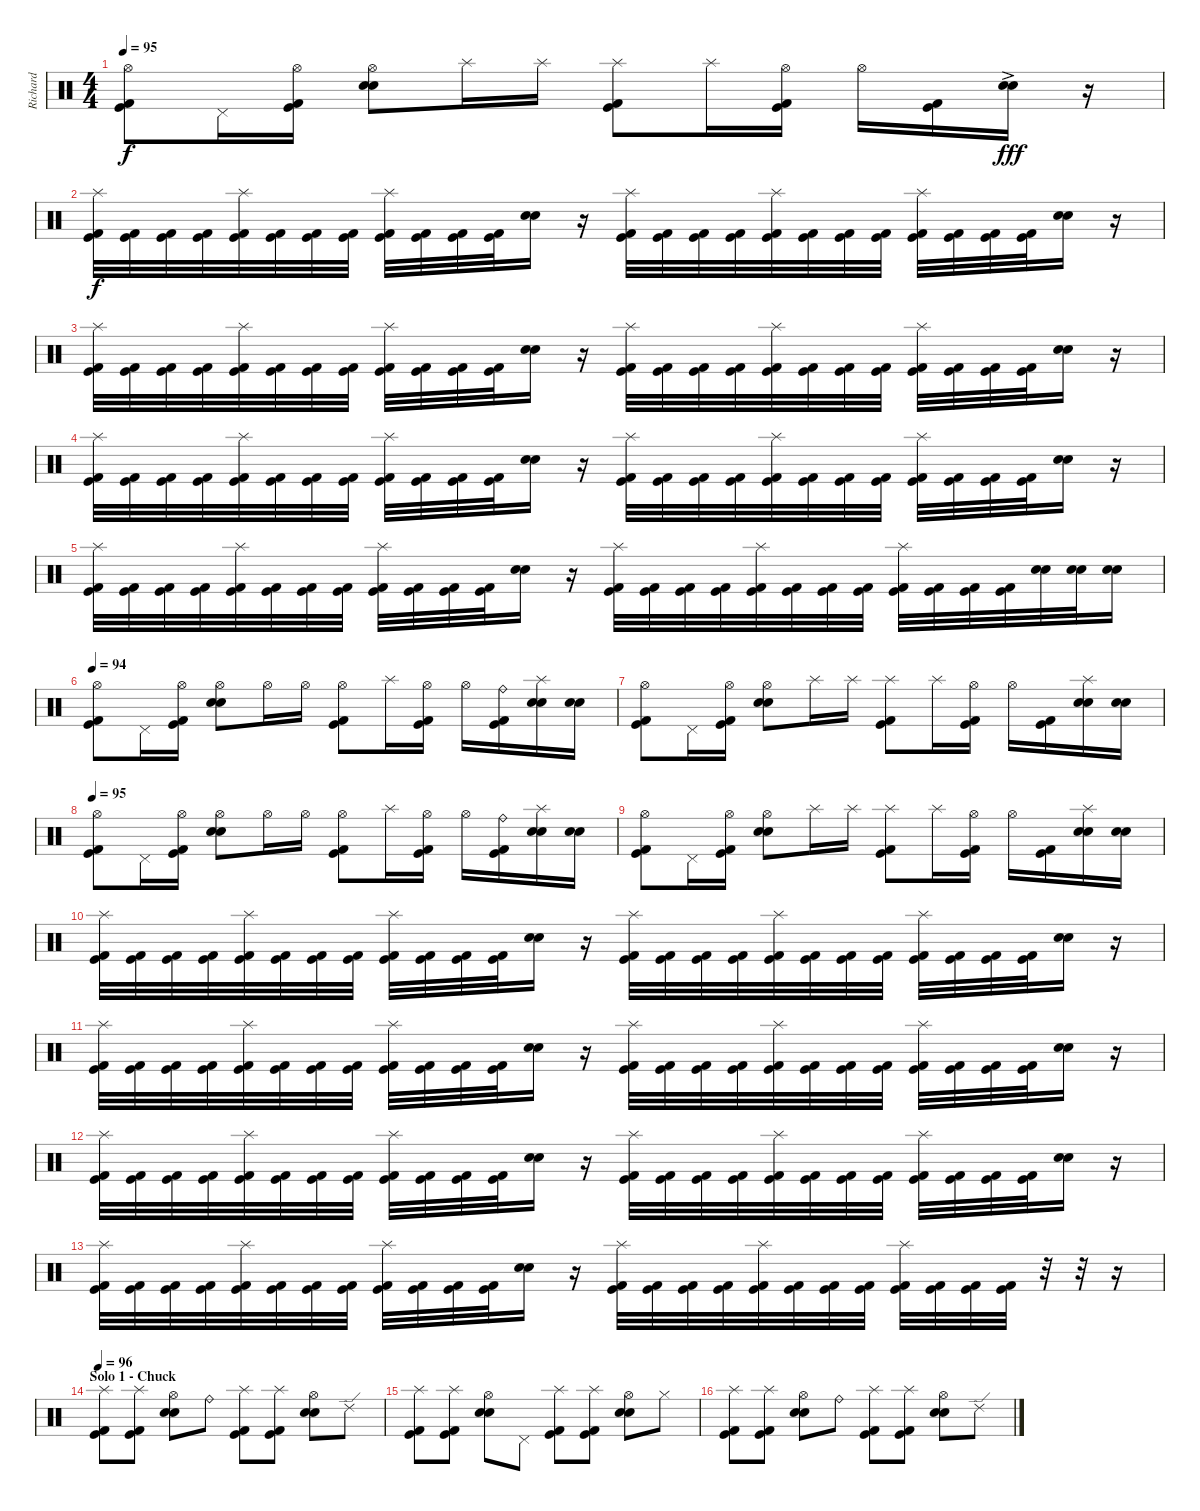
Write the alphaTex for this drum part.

\track ("Richard" "Richard") {instrument percussion}
\staff {score}
\articulation defaults
\ts (4 4)
\tempo 95
\clef neutral
\ks c
("Hi-Hat (open)" "Kick (hit)" "Kick (hit) 2").8{dy f} "Pedal Hi-Hat (hit)".16 ("Hi-Hat (open)" "Kick (hit)" "Kick (hit) 2").16 ("Hi-Hat (open)" "Snare (hit) 2" "Electric Snare (hit)").8 "Splash (hit)".16 "Splash (hit)".16 ("Splash (hit)" "Kick (hit)" "Kick (hit) 2").8 "Splash (hit)".16 ("Hi-Hat (open)" "Kick (hit)" "Kick (hit) 2").16 "Hi-Hat (open)".16 ("Kick (hit)" "Kick (hit) 2").16 ("Snare (hit) 2"{ac} "Electric Snare (hit)"{ac}).16{dy fff} r.16 |
("Splash (hit)" "Kick (hit)" "Kick (hit) 2").32{dy f} ("Kick (hit)" "Kick (hit) 2").32 ("Kick (hit)" "Kick (hit) 2").32 ("Kick (hit)" "Kick (hit) 2").32 ("Splash (hit)" "Kick (hit)" "Kick (hit) 2").32 ("Kick (hit)" "Kick (hit) 2").32 ("Kick (hit)" "Kick (hit) 2").32 ("Kick (hit)" "Kick (hit) 2").32 ("Splash (hit)" "Kick (hit)" "Kick (hit) 2").32 ("Kick (hit)" "Kick (hit) 2").32 ("Kick (hit)" "Kick (hit) 2").32 ("Kick (hit)" "Kick (hit) 2").32 ("Snare (hit) 2" "Electric Snare (hit)").16 r.16 ("Splash (hit)" "Kick (hit)" "Kick (hit) 2").32 ("Kick (hit)" "Kick (hit) 2").32 ("Kick (hit)" "Kick (hit) 2").32 ("Kick (hit)" "Kick (hit) 2").32 ("Splash (hit)" "Kick (hit)" "Kick (hit) 2").32 ("Kick (hit)" "Kick (hit) 2").32 ("Kick (hit)" "Kick (hit) 2").32 ("Kick (hit)" "Kick (hit) 2").32 ("Splash (hit)" "Kick (hit)" "Kick (hit) 2").32 ("Kick (hit)" "Kick (hit) 2").32 ("Kick (hit)" "Kick (hit) 2").32 ("Kick (hit)" "Kick (hit) 2").32 ("Snare (hit) 2" "Electric Snare (hit)").16 r.16 |
("Splash (hit)" "Kick (hit)" "Kick (hit) 2").32 ("Kick (hit)" "Kick (hit) 2").32 ("Kick (hit)" "Kick (hit) 2").32 ("Kick (hit)" "Kick (hit) 2").32 ("Splash (hit)" "Kick (hit)" "Kick (hit) 2").32 ("Kick (hit)" "Kick (hit) 2").32 ("Kick (hit)" "Kick (hit) 2").32 ("Kick (hit)" "Kick (hit) 2").32 ("Splash (hit)" "Kick (hit)" "Kick (hit) 2").32 ("Kick (hit)" "Kick (hit) 2").32 ("Kick (hit)" "Kick (hit) 2").32 ("Kick (hit)" "Kick (hit) 2").32 ("Snare (hit) 2" "Electric Snare (hit)").16 r.16 ("Splash (hit)" "Kick (hit)" "Kick (hit) 2").32 ("Kick (hit)" "Kick (hit) 2").32 ("Kick (hit)" "Kick (hit) 2").32 ("Kick (hit)" "Kick (hit) 2").32 ("Splash (hit)" "Kick (hit)" "Kick (hit) 2").32 ("Kick (hit)" "Kick (hit) 2").32 ("Kick (hit)" "Kick (hit) 2").32 ("Kick (hit)" "Kick (hit) 2").32 ("Splash (hit)" "Kick (hit)" "Kick (hit) 2").32 ("Kick (hit)" "Kick (hit) 2").32 ("Kick (hit)" "Kick (hit) 2").32 ("Kick (hit)" "Kick (hit) 2").32 ("Snare (hit) 2" "Electric Snare (hit)").16 r.16 |
("Splash (hit)" "Kick (hit)" "Kick (hit) 2").32 ("Kick (hit)" "Kick (hit) 2").32 ("Kick (hit)" "Kick (hit) 2").32 ("Kick (hit)" "Kick (hit) 2").32 ("Splash (hit)" "Kick (hit)" "Kick (hit) 2").32 ("Kick (hit)" "Kick (hit) 2").32 ("Kick (hit)" "Kick (hit) 2").32 ("Kick (hit)" "Kick (hit) 2").32 ("Splash (hit)" "Kick (hit)" "Kick (hit) 2").32 ("Kick (hit)" "Kick (hit) 2").32 ("Kick (hit)" "Kick (hit) 2").32 ("Kick (hit)" "Kick (hit) 2").32 ("Snare (hit) 2" "Electric Snare (hit)").16 r.16 ("Splash (hit)" "Kick (hit)" "Kick (hit) 2").32 ("Kick (hit)" "Kick (hit) 2").32 ("Kick (hit)" "Kick (hit) 2").32 ("Kick (hit)" "Kick (hit) 2").32 ("Splash (hit)" "Kick (hit)" "Kick (hit) 2").32 ("Kick (hit)" "Kick (hit) 2").32 ("Kick (hit)" "Kick (hit) 2").32 ("Kick (hit)" "Kick (hit) 2").32 ("Splash (hit)" "Kick (hit)" "Kick (hit) 2").32 ("Kick (hit)" "Kick (hit) 2").32 ("Kick (hit)" "Kick (hit) 2").32 ("Kick (hit)" "Kick (hit) 2").32 ("Snare (hit) 2" "Electric Snare (hit)").16 r.16 |
("Splash (hit)" "Kick (hit)" "Kick (hit) 2").32 ("Kick (hit)" "Kick (hit) 2").32 ("Kick (hit)" "Kick (hit) 2").32 ("Kick (hit)" "Kick (hit) 2").32 ("Splash (hit)" "Kick (hit)" "Kick (hit) 2").32 ("Kick (hit)" "Kick (hit) 2").32 ("Kick (hit)" "Kick (hit) 2").32 ("Kick (hit)" "Kick (hit) 2").32 ("Splash (hit)" "Kick (hit)" "Kick (hit) 2").32 ("Kick (hit)" "Kick (hit) 2").32 ("Kick (hit)" "Kick (hit) 2").32 ("Kick (hit)" "Kick (hit) 2").32 ("Snare (hit) 2" "Electric Snare (hit)").16 r.16 ("Splash (hit)" "Kick (hit)" "Kick (hit) 2").32 ("Kick (hit)" "Kick (hit) 2").32 ("Kick (hit)" "Kick (hit) 2").32 ("Kick (hit)" "Kick (hit) 2").32 ("Splash (hit)" "Kick (hit)" "Kick (hit) 2").32 ("Kick (hit)" "Kick (hit) 2").32 ("Kick (hit)" "Kick (hit) 2").32 ("Kick (hit)" "Kick (hit) 2").32 ("Splash (hit)" "Kick (hit)" "Kick (hit) 2").32 ("Kick (hit)" "Kick (hit) 2").32 ("Kick (hit)" "Kick (hit) 2").32 ("Kick (hit)" "Kick (hit) 2").32 ("Snare (hit) 2" "Electric Snare (hit)").32 ("Snare (hit) 2" "Electric Snare (hit)").32 ("Snare (hit) 2" "Electric Snare (hit)").16 |
\tempo 94
("Hi-Hat (open)" "Kick (hit)" "Kick (hit) 2").8 "Pedal Hi-Hat (hit)".16 ("Hi-Hat (open)" "Kick (hit)" "Kick (hit) 2").16 ("Hi-Hat (open)" "Snare (hit) 2" "Electric Snare (hit)").8 "Hi-Hat (open)".16 "Hi-Hat (open)".16 ("Hi-Hat (open)" "Kick (hit)" "Kick (hit) 2").8 "Splash (hit)".16 ("Hi-Hat (open)" "Kick (hit)" "Kick (hit) 2").16 "Hi-Hat (open)".16 ("Ride (bell)" "Kick (hit)" "Kick (hit) 2").16 ("Splash (hit)" "Snare (hit) 2" "Electric Snare (hit)").16 ("Snare (hit) 2" "Electric Snare (hit)").16 |
("Hi-Hat (open)" "Kick (hit)" "Kick (hit) 2").8 "Pedal Hi-Hat (hit)".16 ("Hi-Hat (open)" "Kick (hit)" "Kick (hit) 2").16 ("Hi-Hat (open)" "Snare (hit) 2" "Electric Snare (hit)").8 "Splash (hit)".16 "Splash (hit)".16 ("Splash (hit)" "Kick (hit)" "Kick (hit) 2").8 "Splash (hit)".16 ("Hi-Hat (open)" "Kick (hit)" "Kick (hit) 2").16 "Hi-Hat (open)".16 ("Kick (hit)" "Kick (hit) 2").16 ("Splash (hit)" "Snare (hit) 2" "Electric Snare (hit)").16 ("Snare (hit) 2" "Electric Snare (hit)").16 |
\tempo 95
("Hi-Hat (open)" "Kick (hit)" "Kick (hit) 2").8 "Pedal Hi-Hat (hit)".16 ("Hi-Hat (open)" "Kick (hit)" "Kick (hit) 2").16 ("Hi-Hat (open)" "Snare (hit) 2" "Electric Snare (hit)").8 "Hi-Hat (open)".16 "Hi-Hat (open)".16 ("Hi-Hat (open)" "Kick (hit)" "Kick (hit) 2").8 "Splash (hit)".16 ("Hi-Hat (open)" "Kick (hit)" "Kick (hit) 2").16 "Hi-Hat (open)".16 ("Ride (bell)" "Kick (hit)" "Kick (hit) 2").16 ("Splash (hit)" "Snare (hit) 2" "Electric Snare (hit)").16 ("Snare (hit) 2" "Electric Snare (hit)").16 |
("Hi-Hat (open)" "Kick (hit)" "Kick (hit) 2").8 "Pedal Hi-Hat (hit)".16 ("Hi-Hat (open)" "Kick (hit)" "Kick (hit) 2").16 ("Hi-Hat (open)" "Snare (hit) 2" "Electric Snare (hit)").8 "Splash (hit)".16 "Splash (hit)".16 ("Splash (hit)" "Kick (hit)" "Kick (hit) 2").8 "Splash (hit)".16 ("Hi-Hat (open)" "Kick (hit)" "Kick (hit) 2").16 "Hi-Hat (open)".16 ("Kick (hit)" "Kick (hit) 2").16 ("Splash (hit)" "Snare (hit) 2" "Electric Snare (hit)").16 ("Snare (hit) 2" "Electric Snare (hit)").16 |
("Splash (hit)" "Kick (hit)" "Kick (hit) 2").32 ("Kick (hit)" "Kick (hit) 2").32 ("Kick (hit)" "Kick (hit) 2").32 ("Kick (hit)" "Kick (hit) 2").32 ("Splash (hit)" "Kick (hit)" "Kick (hit) 2").32 ("Kick (hit)" "Kick (hit) 2").32 ("Kick (hit)" "Kick (hit) 2").32 ("Kick (hit)" "Kick (hit) 2").32 ("Splash (hit)" "Kick (hit)" "Kick (hit) 2").32 ("Kick (hit)" "Kick (hit) 2").32 ("Kick (hit)" "Kick (hit) 2").32 ("Kick (hit)" "Kick (hit) 2").32 ("Snare (hit) 2" "Electric Snare (hit)").16 r.16 ("Splash (hit)" "Kick (hit)" "Kick (hit) 2").32 ("Kick (hit)" "Kick (hit) 2").32 ("Kick (hit)" "Kick (hit) 2").32 ("Kick (hit)" "Kick (hit) 2").32 ("Splash (hit)" "Kick (hit)" "Kick (hit) 2").32 ("Kick (hit)" "Kick (hit) 2").32 ("Kick (hit)" "Kick (hit) 2").32 ("Kick (hit)" "Kick (hit) 2").32 ("Splash (hit)" "Kick (hit)" "Kick (hit) 2").32 ("Kick (hit)" "Kick (hit) 2").32 ("Kick (hit)" "Kick (hit) 2").32 ("Kick (hit)" "Kick (hit) 2").32 ("Snare (hit) 2" "Electric Snare (hit)").16 r.16 |
("Splash (hit)" "Kick (hit)" "Kick (hit) 2").32 ("Kick (hit)" "Kick (hit) 2").32 ("Kick (hit)" "Kick (hit) 2").32 ("Kick (hit)" "Kick (hit) 2").32 ("Splash (hit)" "Kick (hit)" "Kick (hit) 2").32 ("Kick (hit)" "Kick (hit) 2").32 ("Kick (hit)" "Kick (hit) 2").32 ("Kick (hit)" "Kick (hit) 2").32 ("Splash (hit)" "Kick (hit)" "Kick (hit) 2").32 ("Kick (hit)" "Kick (hit) 2").32 ("Kick (hit)" "Kick (hit) 2").32 ("Kick (hit)" "Kick (hit) 2").32 ("Snare (hit) 2" "Electric Snare (hit)").16 r.16 ("Splash (hit)" "Kick (hit)" "Kick (hit) 2").32 ("Kick (hit)" "Kick (hit) 2").32 ("Kick (hit)" "Kick (hit) 2").32 ("Kick (hit)" "Kick (hit) 2").32 ("Splash (hit)" "Kick (hit)" "Kick (hit) 2").32 ("Kick (hit)" "Kick (hit) 2").32 ("Kick (hit)" "Kick (hit) 2").32 ("Kick (hit)" "Kick (hit) 2").32 ("Splash (hit)" "Kick (hit)" "Kick (hit) 2").32 ("Kick (hit)" "Kick (hit) 2").32 ("Kick (hit)" "Kick (hit) 2").32 ("Kick (hit)" "Kick (hit) 2").32 ("Snare (hit) 2" "Electric Snare (hit)").16 r.16 |
("Splash (hit)" "Kick (hit)" "Kick (hit) 2").32 ("Kick (hit)" "Kick (hit) 2").32 ("Kick (hit)" "Kick (hit) 2").32 ("Kick (hit)" "Kick (hit) 2").32 ("Splash (hit)" "Kick (hit)" "Kick (hit) 2").32 ("Kick (hit)" "Kick (hit) 2").32 ("Kick (hit)" "Kick (hit) 2").32 ("Kick (hit)" "Kick (hit) 2").32 ("Splash (hit)" "Kick (hit)" "Kick (hit) 2").32 ("Kick (hit)" "Kick (hit) 2").32 ("Kick (hit)" "Kick (hit) 2").32 ("Kick (hit)" "Kick (hit) 2").32 ("Snare (hit) 2" "Electric Snare (hit)").16 r.16 ("Splash (hit)" "Kick (hit)" "Kick (hit) 2").32 ("Kick (hit)" "Kick (hit) 2").32 ("Kick (hit)" "Kick (hit) 2").32 ("Kick (hit)" "Kick (hit) 2").32 ("Splash (hit)" "Kick (hit)" "Kick (hit) 2").32 ("Kick (hit)" "Kick (hit) 2").32 ("Kick (hit)" "Kick (hit) 2").32 ("Kick (hit)" "Kick (hit) 2").32 ("Splash (hit)" "Kick (hit)" "Kick (hit) 2").32 ("Kick (hit)" "Kick (hit) 2").32 ("Kick (hit)" "Kick (hit) 2").32 ("Kick (hit)" "Kick (hit) 2").32 ("Snare (hit) 2" "Electric Snare (hit)").16 r.16 |
("Splash (hit)" "Kick (hit)" "Kick (hit) 2").32 ("Kick (hit)" "Kick (hit) 2").32 ("Kick (hit)" "Kick (hit) 2").32 ("Kick (hit)" "Kick (hit) 2").32 ("Splash (hit)" "Kick (hit)" "Kick (hit) 2").32 ("Kick (hit)" "Kick (hit) 2").32 ("Kick (hit)" "Kick (hit) 2").32 ("Kick (hit)" "Kick (hit) 2").32 ("Splash (hit)" "Kick (hit)" "Kick (hit) 2").32 ("Kick (hit)" "Kick (hit) 2").32 ("Kick (hit)" "Kick (hit) 2").32 ("Kick (hit)" "Kick (hit) 2").32 ("Snare (hit) 2" "Electric Snare (hit)").16 r.16 ("Splash (hit)" "Kick (hit)" "Kick (hit) 2").32 ("Kick (hit)" "Kick (hit) 2").32 ("Kick (hit)" "Kick (hit) 2").32 ("Kick (hit)" "Kick (hit) 2").32 ("Splash (hit)" "Kick (hit)" "Kick (hit) 2").32 ("Kick (hit)" "Kick (hit) 2").32 ("Kick (hit)" "Kick (hit) 2").32 ("Kick (hit)" "Kick (hit) 2").32 ("Splash (hit)" "Kick (hit)" "Kick (hit) 2").32 ("Kick (hit)" "Kick (hit) 2").32 ("Kick (hit)" "Kick (hit) 2").32 ("Kick (hit)" "Kick (hit) 2").32 r.32 r.32 r.16 |
\section ("" "Solo 1 - Chuck")
\tempo 96
("Splash (hit)" "Kick (hit)" "Kick (hit) 2").8 ("Splash (hit)" "Kick (hit)" "Kick (hit) 2").8 ("Hi-Hat (open)" "Snare (hit) 2" "Electric Snare (hit)").8 "Ride (bell)".8 ("Splash (hit)" "Kick (hit)" "Kick (hit) 2").8 ("Splash (hit)" "Kick (hit)" "Kick (hit) 2").8 ("Hi-Hat (open)" "Snare (hit) 2" "Electric Snare (hit)").8 "Ride (edge) 2".8 |
("Splash (hit)" "Kick (hit)" "Kick (hit) 2").8 ("Splash (hit)" "Kick (hit)" "Kick (hit) 2").8 ("Hi-Hat (open)" "Snare (hit) 2" "Electric Snare (hit)").8 "Pedal Hi-Hat (hit)".8 ("Splash (hit)" "Kick (hit)" "Kick (hit) 2").8 ("Splash (hit)" "Kick (hit)" "Kick (hit) 2").8 ("Hi-Hat (open)" "Snare (hit) 2" "Electric Snare (hit)").8 "Hi-Hat (closed)".8 |
("Splash (hit)" "Kick (hit)" "Kick (hit) 2").8 ("Splash (hit)" "Kick (hit)" "Kick (hit) 2").8 ("Hi-Hat (open)" "Snare (hit) 2" "Electric Snare (hit)").8 "Ride (bell)".8 ("Splash (hit)" "Kick (hit)" "Kick (hit) 2").8 ("Splash (hit)" "Kick (hit)" "Kick (hit) 2").8 ("Hi-Hat (open)" "Snare (hit) 2" "Electric Snare (hit)").8 "Ride (edge) 2".8
